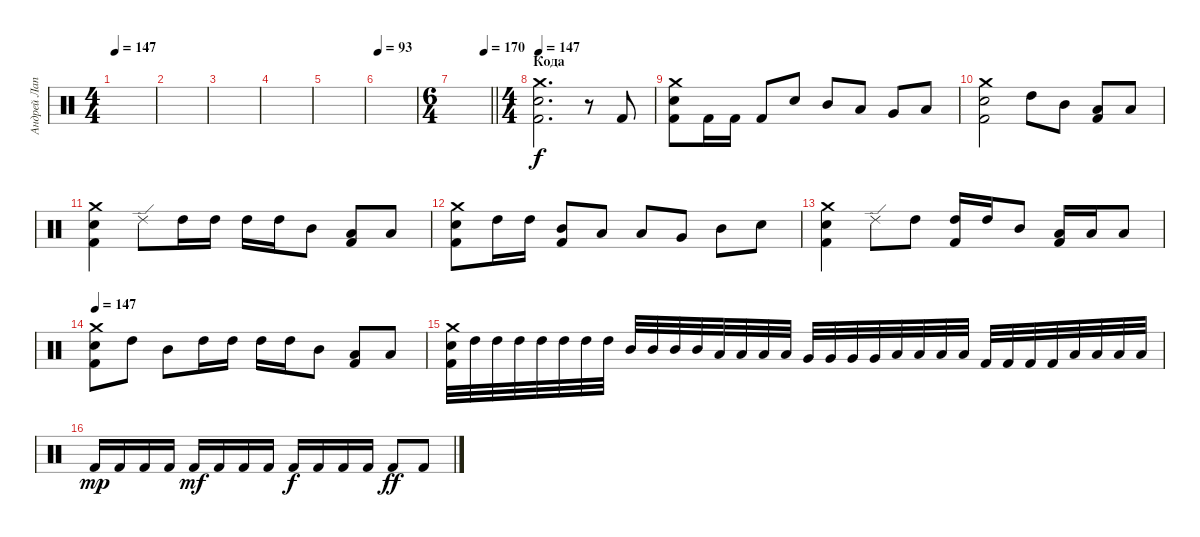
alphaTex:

\track ("Андрей Лаптев" "Андрей Лап") {instrument percussion}
\staff {score}
\articulation defaults
\ts (4 4)
\tempo 147
\clef neutral
\ks c
|
|
|
|
|
\tempo 93
|
\ts (6 4)
\tempo (170 0.8333333333333334)
\barLineRight lightlight
|
\ts (4 4)
\section ("" "Кода")
\tempo 147
("Crash medium (hit)" "Electric Snare (hit)" "Kick (hit) 2").2{d} r.8 "Kick (hit) 2".8 |
("Crash medium (hit)" "Electric Snare (hit)" "Kick (hit) 2").8 "Kick (hit) 2".16 "Kick (hit) 2".16 "Kick (hit) 2".8 "Electric Snare (hit)".8 "Mid Tom (hit)".8 "Low Tom (hit)".8 "Very Low Tom (hit)".8 "Low Floor Tom (hit)".8 |
("Crash medium (hit)" "Electric Snare (hit)" "Kick (hit) 2").2 "High Tom (hit)".8 "Mid Tom (hit)".8 ("Low Tom (hit)" "Kick (hit) 2").8 "Low Floor Tom (hit)".8 |
("Crash medium (hit)" "Electric Snare (hit)" "Kick (hit) 2").4 "Ride (edge) 2".8 "High Tom (hit)".16 "High Tom (hit)".16 "High Tom (hit)".16 "High Tom (hit)".16 "Mid Tom (hit)".8 ("Low Tom (hit)" "Kick (hit) 2").8 "Low Floor Tom (hit)".8 |
("Crash medium (hit)" "Electric Snare (hit)" "Kick (hit) 2").8 "High Tom (hit)".16 "High Tom (hit)".16 ("Mid Tom (hit)" "Kick (hit) 2").8 "Low Tom (hit)".8 "Low Floor Tom (hit)".8 "Very Low Tom (hit)".8 "Mid Tom (hit)".8 "Electric Snare (hit)".8 |
("Crash medium (hit)" "Electric Snare (hit)" "Kick (hit) 2").4 "Ride (edge) 2".8 "High Tom (hit)".8 ("High Tom (hit)" "Kick (hit) 2").16 "High Tom (hit)".16 "Mid Tom (hit)".8 ("Low Tom (hit)" "Kick (hit) 2").16 "Low Tom (hit)".16 "Low Floor Tom (hit)".8 |
\tempo 147
("Crash medium (hit)" "Electric Snare (hit)" "Kick (hit) 2").8 "High Tom (hit)".8 "Mid Tom (hit)".8 "High Tom (hit)".16 "High Tom (hit)".16 "High Tom (hit)".16 "High Tom (hit)".16 "Mid Tom (hit)".8 ("Low Tom (hit)" "Kick (hit) 2").8 "Low Floor Tom (hit)".8 |
("Crash medium (hit)" "Electric Snare (hit)" "Kick (hit) 2").32 "High Tom (hit)".32 "High Tom (hit)".32 "High Tom (hit)".32 "High Tom (hit)".32 "High Tom (hit)".32 "High Tom (hit)".32 "High Tom (hit)".32 "Mid Tom (hit)".32 "Mid Tom (hit)".32 "Mid Tom (hit)".32 "Mid Tom (hit)".32 "Low Tom (hit)".32 "Low Tom (hit)".32 "Low Tom (hit)".32 "Low Tom (hit)".32 "Very Low Tom (hit)".32 "Very Low Tom (hit)".32 "Very Low Tom (hit)".32 "Very Low Tom (hit)".32 "Low Floor Tom (hit)".32 "Low Floor Tom (hit)".32 "Low Floor Tom (hit)".32 "Low Floor Tom (hit)".32 "Kick (hit) 2".32 "Kick (hit) 2".32 "Kick (hit) 2".32 "Kick (hit) 2".32 "Low Floor Tom (hit)".32 "Low Floor Tom (hit)".32 "Low Floor Tom (hit)".32 "Low Floor Tom (hit)".32 |
"Kick (hit) 2".16{dy mp} "Kick (hit) 2".16 "Kick (hit) 2".16 "Kick (hit) 2".16 "Kick (hit) 2".16{dy mf} "Kick (hit) 2".16 "Kick (hit) 2".16 "Kick (hit) 2".16 "Kick (hit) 2".16{dy f} "Kick (hit) 2".16 "Kick (hit) 2".16 "Kick (hit) 2".16 "Kick (hit) 2".8{dy ff} "Kick (hit) 2".8
